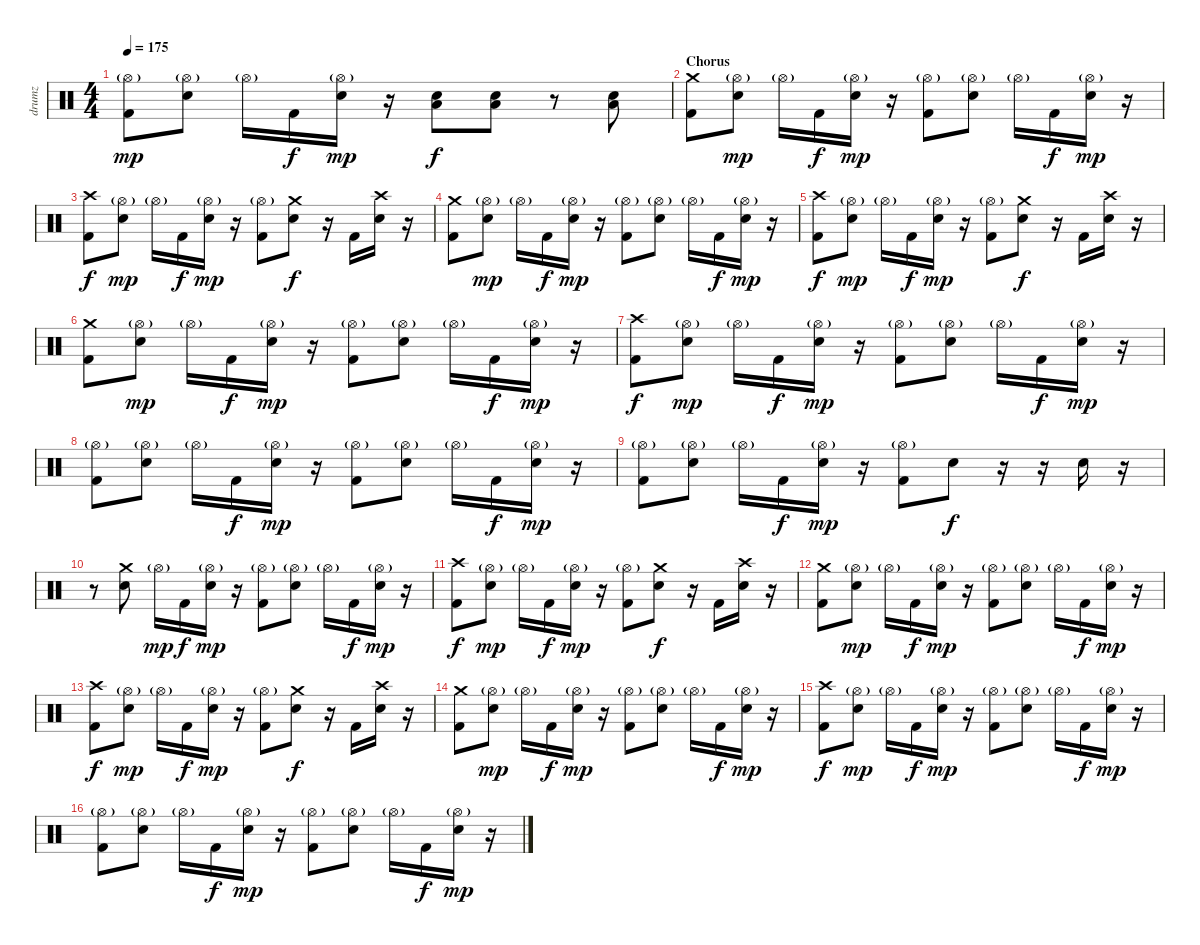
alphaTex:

\track ("drumz" "drumz") {instrument percussion}
\staff {score}
\articulation defaults
\ts (4 4)
\tempo 175
\clef neutral
\ks c
("Hi-Hat (open)"{g} "Kick (hit) 2").8{dy mp} ("Hi-Hat (open)"{g} "Electric Snare (hit)").8 "Hi-Hat (open)"{g}.16 "Kick (hit) 2".16{dy f} ("Hi-Hat (open)"{g} "Electric Snare (hit)").16{dy mp} r.16 ("Low Floor Tom (hit)" "Electric Snare (hit)").8{dy f} ("Low Floor Tom (hit)" "Electric Snare (hit)").8 r.8 ("Low Floor Tom (hit)" "Electric Snare (hit)").8 |
\section ("" "Chorus")
("Crash medium (hit)" "Kick (hit) 2").8 ("Hi-Hat (open)"{g} "Electric Snare (hit)").8{dy mp} "Hi-Hat (open)"{g}.16 "Kick (hit) 2".16{dy f} ("Hi-Hat (open)"{g} "Electric Snare (hit)").16{dy mp} r.16 ("Hi-Hat (open)"{g} "Kick (hit) 2").8 ("Hi-Hat (open)"{g} "Electric Snare (hit)").8 "Hi-Hat (open)"{g}.16 "Kick (hit) 2".16{dy f} ("Hi-Hat (open)"{g} "Electric Snare (hit)").16{dy mp} r.16 |
("Crash high (hit)" "Kick (hit) 2").8{dy f} ("Hi-Hat (open)"{g} "Electric Snare (hit)").8{dy mp} "Hi-Hat (open)"{g}.16 "Kick (hit) 2".16{dy f} ("Hi-Hat (open)"{g} "Electric Snare (hit)").16{dy mp} r.16 ("Hi-Hat (open)"{g} "Kick (hit) 2").8 ("Crash medium (hit)" "Electric Snare (hit)").8{dy f} r.16 "Kick (hit) 2".16 ("Crash high (hit)" "Electric Snare (hit)").16 r.16 |
("Crash medium (hit)" "Kick (hit) 2").8 ("Hi-Hat (open)"{g} "Electric Snare (hit)").8{dy mp} "Hi-Hat (open)"{g}.16 "Kick (hit) 2".16{dy f} ("Hi-Hat (open)"{g} "Electric Snare (hit)").16{dy mp} r.16 ("Hi-Hat (open)"{g} "Kick (hit) 2").8 ("Hi-Hat (open)"{g} "Electric Snare (hit)").8 "Hi-Hat (open)"{g}.16 "Kick (hit) 2".16{dy f} ("Hi-Hat (open)"{g} "Electric Snare (hit)").16{dy mp} r.16 |
("Crash high (hit)" "Kick (hit) 2").8{dy f} ("Hi-Hat (open)"{g} "Electric Snare (hit)").8{dy mp} "Hi-Hat (open)"{g}.16 "Kick (hit) 2".16{dy f} ("Hi-Hat (open)"{g} "Electric Snare (hit)").16{dy mp} r.16 ("Hi-Hat (open)"{g} "Kick (hit) 2").8 ("Crash medium (hit)" "Electric Snare (hit)").8{dy f} r.16 "Kick (hit) 2".16 ("Crash high (hit)" "Electric Snare (hit)").16 r.16 |
("Crash medium (hit)" "Kick (hit) 2").8 ("Hi-Hat (open)"{g} "Electric Snare (hit)").8{dy mp} "Hi-Hat (open)"{g}.16 "Kick (hit) 2".16{dy f} ("Hi-Hat (open)"{g} "Electric Snare (hit)").16{dy mp} r.16 ("Hi-Hat (open)"{g} "Kick (hit) 2").8 ("Hi-Hat (open)"{g} "Electric Snare (hit)").8 "Hi-Hat (open)"{g}.16 "Kick (hit) 2".16{dy f} ("Hi-Hat (open)"{g} "Electric Snare (hit)").16{dy mp} r.16 |
("Crash high (hit)" "Kick (hit) 2").8{dy f} ("Hi-Hat (open)"{g} "Electric Snare (hit)").8{dy mp} "Hi-Hat (open)"{g}.16 "Kick (hit) 2".16{dy f} ("Hi-Hat (open)"{g} "Electric Snare (hit)").16{dy mp} r.16 ("Hi-Hat (open)"{g} "Kick (hit) 2").8 ("Hi-Hat (open)"{g} "Electric Snare (hit)").8 "Hi-Hat (open)"{g}.16 "Kick (hit) 2".16{dy f} ("Hi-Hat (open)"{g} "Electric Snare (hit)").16{dy mp} r.16 |
("Hi-Hat (open)"{g} "Kick (hit) 2").8 ("Hi-Hat (open)"{g} "Electric Snare (hit)").8 "Hi-Hat (open)"{g}.16 "Kick (hit) 2".16{dy f} ("Hi-Hat (open)"{g} "Electric Snare (hit)").16{dy mp} r.16 ("Hi-Hat (open)"{g} "Kick (hit) 2").8 ("Hi-Hat (open)"{g} "Electric Snare (hit)").8 "Hi-Hat (open)"{g}.16 "Kick (hit) 2".16{dy f} ("Hi-Hat (open)"{g} "Electric Snare (hit)").16{dy mp} r.16 |
("Hi-Hat (open)"{g} "Kick (hit) 2").8 ("Hi-Hat (open)"{g} "Electric Snare (hit)").8 "Hi-Hat (open)"{g}.16 "Kick (hit) 2".16{dy f} ("Hi-Hat (open)"{g} "Electric Snare (hit)").16{dy mp} r.16 ("Hi-Hat (open)"{g} "Kick (hit) 2").8 "Electric Snare (hit)".8{dy f} r.16 r.16 "Electric Snare (hit)".16 r.16 |
r.8 ("Crash medium (hit)" "Electric Snare (hit)").8 "Hi-Hat (open)"{g}.16{dy mp} "Kick (hit) 2".16{dy f} ("Hi-Hat (open)"{g} "Electric Snare (hit)").16{dy mp} r.16 ("Hi-Hat (open)"{g} "Kick (hit) 2").8 ("Hi-Hat (open)"{g} "Electric Snare (hit)").8 "Hi-Hat (open)"{g}.16 "Kick (hit) 2".16{dy f} ("Hi-Hat (open)"{g} "Electric Snare (hit)").16{dy mp} r.16 |
("Crash high (hit)" "Kick (hit) 2").8{dy f} ("Hi-Hat (open)"{g} "Electric Snare (hit)").8{dy mp} "Hi-Hat (open)"{g}.16 "Kick (hit) 2".16{dy f} ("Hi-Hat (open)"{g} "Electric Snare (hit)").16{dy mp} r.16 ("Hi-Hat (open)"{g} "Kick (hit) 2").8 ("Crash medium (hit)" "Electric Snare (hit)").8{dy f} r.16 "Kick (hit) 2".16 ("Crash high (hit)" "Electric Snare (hit)").16 r.16 |
("Crash medium (hit)" "Kick (hit) 2").8 ("Hi-Hat (open)"{g} "Electric Snare (hit)").8{dy mp} "Hi-Hat (open)"{g}.16 "Kick (hit) 2".16{dy f} ("Hi-Hat (open)"{g} "Electric Snare (hit)").16{dy mp} r.16 ("Hi-Hat (open)"{g} "Kick (hit) 2").8 ("Hi-Hat (open)"{g} "Electric Snare (hit)").8 "Hi-Hat (open)"{g}.16 "Kick (hit) 2".16{dy f} ("Hi-Hat (open)"{g} "Electric Snare (hit)").16{dy mp} r.16 |
("Crash high (hit)" "Kick (hit) 2").8{dy f} ("Hi-Hat (open)"{g} "Electric Snare (hit)").8{dy mp} "Hi-Hat (open)"{g}.16 "Kick (hit) 2".16{dy f} ("Hi-Hat (open)"{g} "Electric Snare (hit)").16{dy mp} r.16 ("Hi-Hat (open)"{g} "Kick (hit) 2").8 ("Crash medium (hit)" "Electric Snare (hit)").8{dy f} r.16 "Kick (hit) 2".16 ("Crash high (hit)" "Electric Snare (hit)").16 r.16 |
("Crash medium (hit)" "Kick (hit) 2").8 ("Hi-Hat (open)"{g} "Electric Snare (hit)").8{dy mp} "Hi-Hat (open)"{g}.16 "Kick (hit) 2".16{dy f} ("Hi-Hat (open)"{g} "Electric Snare (hit)").16{dy mp} r.16 ("Hi-Hat (open)"{g} "Kick (hit) 2").8 ("Hi-Hat (open)"{g} "Electric Snare (hit)").8 "Hi-Hat (open)"{g}.16 "Kick (hit) 2".16{dy f} ("Hi-Hat (open)"{g} "Electric Snare (hit)").16{dy mp} r.16 |
("Crash high (hit)" "Kick (hit) 2").8{dy f} ("Hi-Hat (open)"{g} "Electric Snare (hit)").8{dy mp} "Hi-Hat (open)"{g}.16 "Kick (hit) 2".16{dy f} ("Hi-Hat (open)"{g} "Electric Snare (hit)").16{dy mp} r.16 ("Hi-Hat (open)"{g} "Kick (hit) 2").8 ("Hi-Hat (open)"{g} "Electric Snare (hit)").8 "Hi-Hat (open)"{g}.16 "Kick (hit) 2".16{dy f} ("Hi-Hat (open)"{g} "Electric Snare (hit)").16{dy mp} r.16 |
("Hi-Hat (open)"{g} "Kick (hit) 2").8 ("Hi-Hat (open)"{g} "Electric Snare (hit)").8 "Hi-Hat (open)"{g}.16 "Kick (hit) 2".16{dy f} ("Hi-Hat (open)"{g} "Electric Snare (hit)").16{dy mp} r.16 ("Hi-Hat (open)"{g} "Kick (hit) 2").8 ("Hi-Hat (open)"{g} "Electric Snare (hit)").8 "Hi-Hat (open)"{g}.16 "Kick (hit) 2".16{dy f} ("Hi-Hat (open)"{g} "Electric Snare (hit)").16{dy mp} r.16
